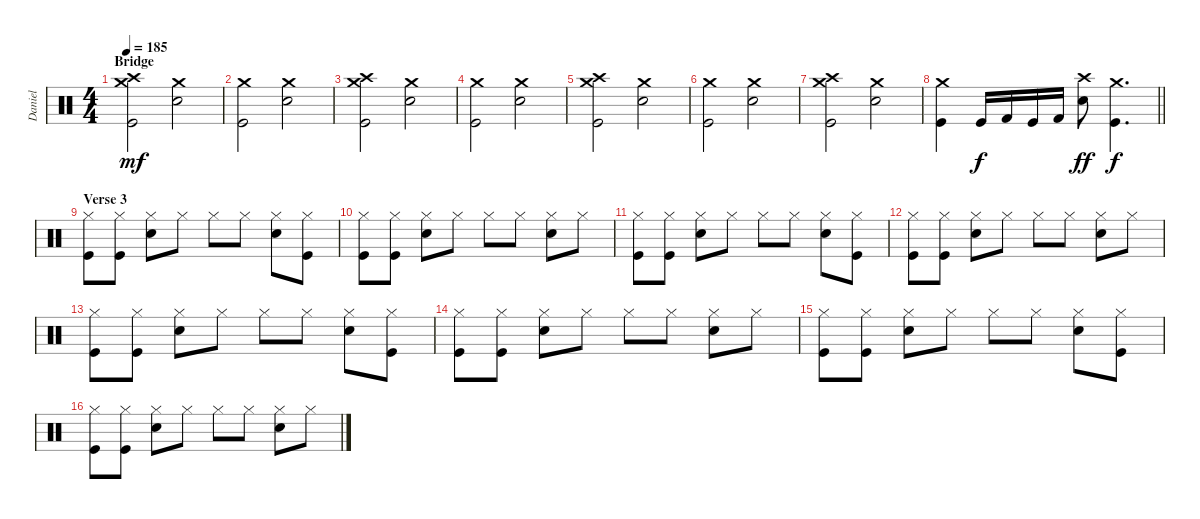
\track ("Daniel" "Daniel") {instrument percussion}
\staff {score}
\articulation defaults
\ts (4 4)
\section ("" "Bridge")
\tempo 185
\clef neutral
\ks c
("Kick (hit)" "Crash medium (hit)" "Crash high (hit)").2{dy mf} ("Electric Snare (hit)" "Crash medium (hit)").2 |
("Kick (hit)" "Crash medium (hit)").2 ("Electric Snare (hit)" "Crash medium (hit)").2 |
("Kick (hit)" "Crash medium (hit)" "Crash high (hit)").2 ("Electric Snare (hit)" "Crash medium (hit)").2 |
("Kick (hit)" "Crash medium (hit)").2 ("Electric Snare (hit)" "Crash medium (hit)").2 |
("Kick (hit)" "Crash medium (hit)" "Crash high (hit)").2 ("Electric Snare (hit)" "Crash medium (hit)").2 |
("Kick (hit)" "Crash medium (hit)").2 ("Electric Snare (hit)" "Crash medium (hit)").2 |
("Kick (hit)" "Crash medium (hit)" "Crash high (hit)").2 ("Electric Snare (hit)" "Crash medium (hit)").2 |
\barLineRight lightlight
("Kick (hit)" "Crash medium (hit)").4 "Kick (hit)".16{dy f} "Kick (hit) 2".16 "Kick (hit)".16 "Kick (hit) 2".16 ("Electric Snare (hit)" "Crash high (hit)").8{dy ff} ("Kick (hit)" "Crash medium (hit)").4{d dy f} |
\section ("" "Verse 3")
("Kick (hit)" "Hi-Hat (closed)").8 ("Kick (hit)" "Hi-Hat (closed)").8 ("Electric Snare (hit)" "Hi-Hat (closed)").8 "Hi-Hat (closed)".8 "Hi-Hat (closed)".8 "Hi-Hat (closed)".8 ("Electric Snare (hit)" "Hi-Hat (closed)").8 ("Kick (hit)" "Hi-Hat (closed)").8 |
("Kick (hit)" "Hi-Hat (closed)").8 ("Kick (hit)" "Hi-Hat (closed)").8 ("Electric Snare (hit)" "Hi-Hat (closed)").8 "Hi-Hat (closed)".8 "Hi-Hat (closed)".8 "Hi-Hat (closed)".8 ("Electric Snare (hit)" "Hi-Hat (closed)").8 "Hi-Hat (closed)".8 |
("Kick (hit)" "Hi-Hat (closed)").8 ("Kick (hit)" "Hi-Hat (closed)").8 ("Electric Snare (hit)" "Hi-Hat (closed)").8 "Hi-Hat (closed)".8 "Hi-Hat (closed)".8 "Hi-Hat (closed)".8 ("Electric Snare (hit)" "Hi-Hat (closed)").8 ("Kick (hit)" "Hi-Hat (closed)").8 |
("Kick (hit)" "Hi-Hat (closed)").8 ("Kick (hit)" "Hi-Hat (closed)").8 ("Electric Snare (hit)" "Hi-Hat (closed)").8 "Hi-Hat (closed)".8 "Hi-Hat (closed)".8 "Hi-Hat (closed)".8 ("Electric Snare (hit)" "Hi-Hat (closed)").8 "Hi-Hat (closed)".8 |
("Kick (hit)" "Hi-Hat (closed)").8 ("Kick (hit)" "Hi-Hat (closed)").8 ("Electric Snare (hit)" "Hi-Hat (closed)").8 "Hi-Hat (closed)".8 "Hi-Hat (closed)".8 "Hi-Hat (closed)".8 ("Electric Snare (hit)" "Hi-Hat (closed)").8 ("Kick (hit)" "Hi-Hat (closed)").8 |
("Kick (hit)" "Hi-Hat (closed)").8 ("Kick (hit)" "Hi-Hat (closed)").8 ("Electric Snare (hit)" "Hi-Hat (closed)").8 "Hi-Hat (closed)".8 "Hi-Hat (closed)".8 "Hi-Hat (closed)".8 ("Electric Snare (hit)" "Hi-Hat (closed)").8 "Hi-Hat (closed)".8 |
("Kick (hit)" "Hi-Hat (closed)").8 ("Kick (hit)" "Hi-Hat (closed)").8 ("Electric Snare (hit)" "Hi-Hat (closed)").8 "Hi-Hat (closed)".8 "Hi-Hat (closed)".8 "Hi-Hat (closed)".8 ("Electric Snare (hit)" "Hi-Hat (closed)").8 ("Kick (hit)" "Hi-Hat (closed)").8 |
("Kick (hit)" "Hi-Hat (closed)").8 ("Kick (hit)" "Hi-Hat (closed)").8 ("Electric Snare (hit)" "Hi-Hat (closed)").8 "Hi-Hat (closed)".8 "Hi-Hat (closed)".8 "Hi-Hat (closed)".8 ("Electric Snare (hit)" "Hi-Hat (closed)").8 "Hi-Hat (closed)".8
